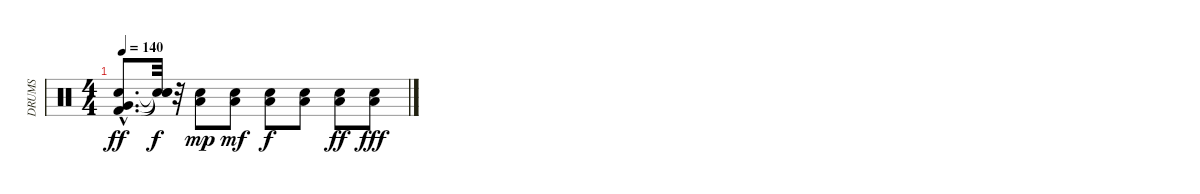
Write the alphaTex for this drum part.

\track ("DRUMS" "DRUMS") {instrument percussion}
\staff {score}
\articulation defaults
\ts (4 4)
\tempo 140
\clef neutral
\ks c
("Kick (hit) 2"{hac} "Electric Snare (hit)"{hac} "Very Low Tom (hit)"{hac}).8{d dy ff volume 0} ("Snare (hit)"{t} "Snare (hit)"{t} "Snare (hit)"{t}).32{dy f} r.32 ("Low Tom (hit)" "Electric Snare (hit)").8{dy mp volume 0} ("Low Tom (hit)" "Electric Snare (hit)").8{dy mf} ("Low Tom (hit)" "Electric Snare (hit)").8{dy f} ("Low Tom (hit)" "Electric Snare (hit)").8 ("Low Tom (hit)" "Electric Snare (hit)").8{dy ff} ("Low Tom (hit)" "Electric Snare (hit)").8{dy fff}
